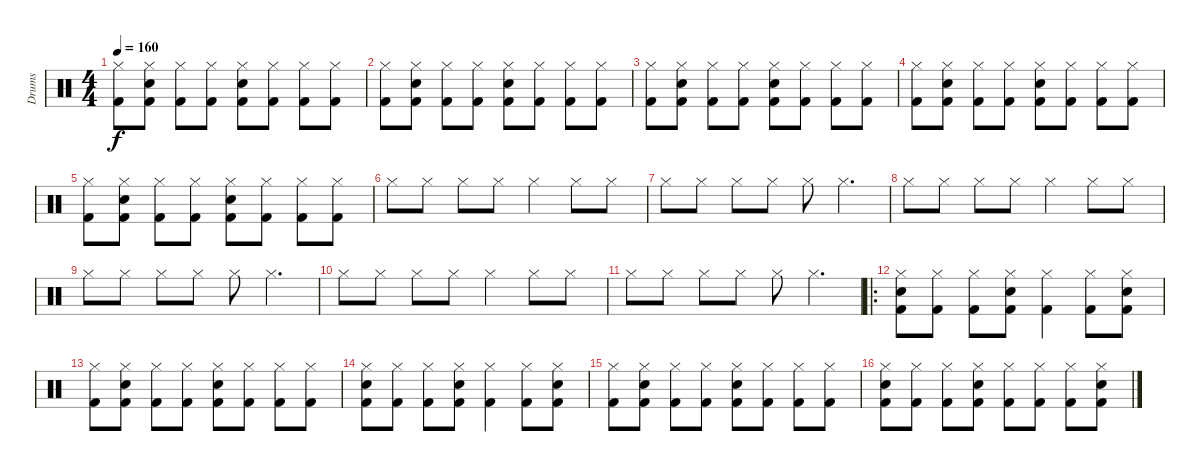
\track ("Drums" "Drums") {instrument percussion}
\staff {score}
\articulation defaults
\ts (4 4)
\tempo 160
\clef neutral
\ks c
("Kick (hit) 2" "Hi-Hat (closed)").8{dy f} ("Kick (hit) 2" "Hi-Hat (closed)" "Snare (hit) 2").8 ("Kick (hit) 2" "Hi-Hat (closed)").8 ("Kick (hit) 2" "Hi-Hat (closed)").8 ("Kick (hit) 2" "Hi-Hat (closed)" "Snare (hit) 2").8 ("Kick (hit) 2" "Hi-Hat (closed)").8 ("Kick (hit) 2" "Hi-Hat (closed)").8 ("Kick (hit) 2" "Hi-Hat (closed)").8 |
("Kick (hit) 2" "Hi-Hat (closed)").8 ("Kick (hit) 2" "Hi-Hat (closed)" "Snare (hit) 2").8 ("Kick (hit) 2" "Hi-Hat (closed)").8 ("Kick (hit) 2" "Hi-Hat (closed)").8 ("Kick (hit) 2" "Hi-Hat (closed)" "Snare (hit) 2").8 ("Kick (hit) 2" "Hi-Hat (closed)").8 ("Kick (hit) 2" "Hi-Hat (closed)").8 ("Kick (hit) 2" "Hi-Hat (closed)").8 |
("Kick (hit) 2" "Hi-Hat (closed)").8 ("Kick (hit) 2" "Hi-Hat (closed)" "Snare (hit) 2").8 ("Kick (hit) 2" "Hi-Hat (closed)").8 ("Kick (hit) 2" "Hi-Hat (closed)").8 ("Kick (hit) 2" "Hi-Hat (closed)" "Snare (hit) 2").8 ("Kick (hit) 2" "Hi-Hat (closed)").8 ("Kick (hit) 2" "Hi-Hat (closed)").8 ("Kick (hit) 2" "Hi-Hat (closed)").8 |
("Kick (hit) 2" "Hi-Hat (closed)").8 ("Kick (hit) 2" "Hi-Hat (closed)" "Snare (hit) 2").8 ("Kick (hit) 2" "Hi-Hat (closed)").8 ("Kick (hit) 2" "Hi-Hat (closed)").8 ("Kick (hit) 2" "Hi-Hat (closed)" "Snare (hit) 2").8 ("Kick (hit) 2" "Hi-Hat (closed)").8 ("Kick (hit) 2" "Hi-Hat (closed)").8 ("Kick (hit) 2" "Hi-Hat (closed)").8 |
("Kick (hit) 2" "Hi-Hat (closed)").8 ("Kick (hit) 2" "Hi-Hat (closed)" "Snare (hit) 2").8 ("Kick (hit) 2" "Hi-Hat (closed)").8 ("Kick (hit) 2" "Hi-Hat (closed)").8 ("Kick (hit) 2" "Hi-Hat (closed)" "Snare (hit) 2").8 ("Kick (hit) 2" "Hi-Hat (closed)").8 ("Kick (hit) 2" "Hi-Hat (closed)").8 ("Kick (hit) 2" "Hi-Hat (closed)").8 |
"Hi-Hat (closed)".8 "Hi-Hat (closed)".8 "Hi-Hat (closed)".8 "Hi-Hat (closed)".8 "Hi-Hat (closed)".4 "Hi-Hat (closed)".8 "Hi-Hat (closed)".8 |
"Hi-Hat (closed)".8 "Hi-Hat (closed)".8 "Hi-Hat (closed)".8 "Hi-Hat (closed)".8 "Hi-Hat (closed)".8 "Hi-Hat (closed)".4{d} |
"Hi-Hat (closed)".8 "Hi-Hat (closed)".8 "Hi-Hat (closed)".8 "Hi-Hat (closed)".8 "Hi-Hat (closed)".4 "Hi-Hat (closed)".8 "Hi-Hat (closed)".8 |
"Hi-Hat (closed)".8 "Hi-Hat (closed)".8 "Hi-Hat (closed)".8 "Hi-Hat (closed)".8 "Hi-Hat (closed)".8 "Hi-Hat (closed)".4{d} |
"Hi-Hat (closed)".8 "Hi-Hat (closed)".8 "Hi-Hat (closed)".8 "Hi-Hat (closed)".8 "Hi-Hat (closed)".4 "Hi-Hat (closed)".8 "Hi-Hat (closed)".8 |
"Hi-Hat (closed)".8 "Hi-Hat (closed)".8 "Hi-Hat (closed)".8 "Hi-Hat (closed)".8 "Hi-Hat (closed)".8 "Hi-Hat (closed)".4{d} |
\ro
("Kick (hit) 2" "Hi-Hat (closed)" "Snare (hit) 2").8 ("Kick (hit) 2" "Hi-Hat (closed)").8 ("Kick (hit) 2" "Hi-Hat (closed)").8 ("Kick (hit) 2" "Hi-Hat (closed)" "Snare (hit) 2").8 ("Kick (hit) 2" "Hi-Hat (closed)").4 ("Kick (hit) 2" "Hi-Hat (closed)").8 ("Kick (hit) 2" "Hi-Hat (closed)" "Snare (hit) 2").8 |
("Kick (hit) 2" "Hi-Hat (closed)").8 ("Kick (hit) 2" "Hi-Hat (closed)" "Snare (hit) 2").8 ("Kick (hit) 2" "Hi-Hat (closed)").8 ("Kick (hit) 2" "Hi-Hat (closed)").8 ("Kick (hit) 2" "Hi-Hat (closed)" "Snare (hit) 2").8 ("Kick (hit) 2" "Hi-Hat (closed)").8 ("Kick (hit) 2" "Hi-Hat (closed)").8 ("Kick (hit) 2" "Hi-Hat (closed)").8 |
("Kick (hit) 2" "Hi-Hat (closed)" "Snare (hit) 2").8 ("Kick (hit) 2" "Hi-Hat (closed)").8 ("Kick (hit) 2" "Hi-Hat (closed)").8 ("Kick (hit) 2" "Hi-Hat (closed)" "Snare (hit) 2").8 ("Kick (hit) 2" "Hi-Hat (closed)").4 ("Kick (hit) 2" "Hi-Hat (closed)").8 ("Kick (hit) 2" "Hi-Hat (closed)" "Snare (hit) 2").8 |
("Kick (hit) 2" "Hi-Hat (closed)").8 ("Kick (hit) 2" "Hi-Hat (closed)" "Snare (hit) 2").8 ("Kick (hit) 2" "Hi-Hat (closed)").8 ("Kick (hit) 2" "Hi-Hat (closed)").8 ("Kick (hit) 2" "Hi-Hat (closed)" "Snare (hit) 2").8 ("Kick (hit) 2" "Hi-Hat (closed)").8 ("Kick (hit) 2" "Hi-Hat (closed)").8 ("Kick (hit) 2" "Hi-Hat (closed)").8 |
("Kick (hit) 2" "Hi-Hat (closed)" "Snare (hit) 2").8 ("Kick (hit) 2" "Hi-Hat (closed)").8 ("Kick (hit) 2" "Hi-Hat (closed)").8 ("Kick (hit) 2" "Hi-Hat (closed)" "Snare (hit) 2").8 ("Kick (hit) 2" "Hi-Hat (closed)").8 ("Kick (hit) 2" "Hi-Hat (closed)").8 ("Kick (hit) 2" "Hi-Hat (closed)").8 ("Kick (hit) 2" "Hi-Hat (closed)" "Snare (hit) 2").8
